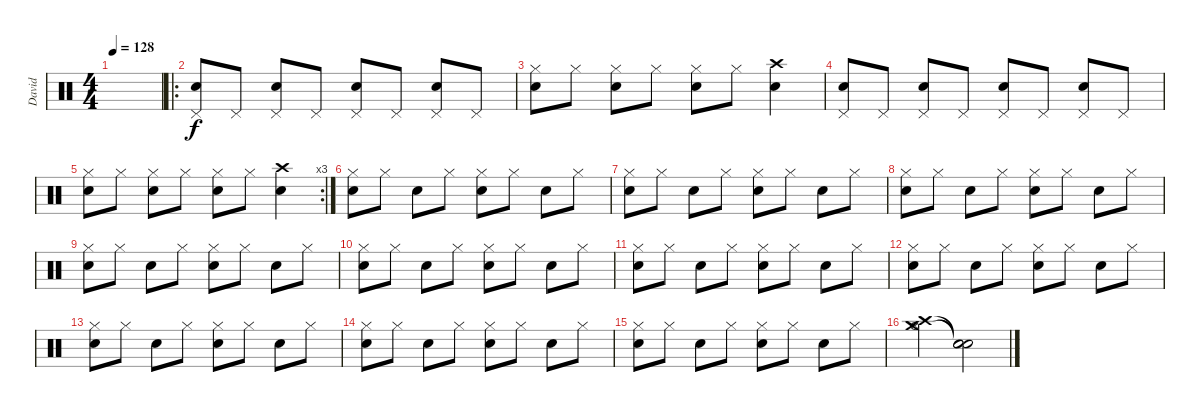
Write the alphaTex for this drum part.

\track ("David" "David") {instrument percussion}
\staff {score}
\articulation defaults
\ts (4 4)
\tempo 128
\clef neutral
\ks c
|
\ro
("Pedal Hi-Hat (hit)" "Electric Snare (hit)").8 "Pedal Hi-Hat (hit)".8 ("Pedal Hi-Hat (hit)" "Electric Snare (hit)").8 "Pedal Hi-Hat (hit)".8 ("Pedal Hi-Hat (hit)" "Electric Snare (hit)").8 "Pedal Hi-Hat (hit)".8 ("Pedal Hi-Hat (hit)" "Electric Snare (hit)").8 "Pedal Hi-Hat (hit)".8 |
("Hi-Hat (closed)" "Electric Snare (hit)").8 "Hi-Hat (closed)".8 ("Hi-Hat (closed)" "Electric Snare (hit)").8 "Hi-Hat (closed)".8 ("Hi-Hat (closed)" "Electric Snare (hit)").8 "Hi-Hat (closed)".8 ("Crash high (hit)" "Electric Snare (hit)").4 |
("Pedal Hi-Hat (hit)" "Electric Snare (hit)").8 "Pedal Hi-Hat (hit)".8 ("Pedal Hi-Hat (hit)" "Electric Snare (hit)").8 "Pedal Hi-Hat (hit)".8 ("Pedal Hi-Hat (hit)" "Electric Snare (hit)").8 "Pedal Hi-Hat (hit)".8 ("Pedal Hi-Hat (hit)" "Electric Snare (hit)").8 "Pedal Hi-Hat (hit)".8 |
\rc 3
("Hi-Hat (closed)" "Electric Snare (hit)").8 "Hi-Hat (closed)".8 ("Hi-Hat (closed)" "Electric Snare (hit)").8 "Hi-Hat (closed)".8 ("Hi-Hat (closed)" "Electric Snare (hit)").8 "Hi-Hat (closed)".8 ("Crash high (hit)" "Electric Snare (hit)").4 |
("Hi-Hat (closed)" "Electric Snare (hit)").8 "Hi-Hat (closed)".8 "Snare (hit) 2".8 "Hi-Hat (closed)".8 ("Hi-Hat (closed)" "Electric Snare (hit)").8 "Hi-Hat (closed)".8 "Snare (hit) 2".8 "Hi-Hat (closed)".8 |
("Hi-Hat (closed)" "Electric Snare (hit)").8 "Hi-Hat (closed)".8 "Snare (hit) 2".8 "Hi-Hat (closed)".8 ("Hi-Hat (closed)" "Electric Snare (hit)").8 "Hi-Hat (closed)".8 "Snare (hit) 2".8 "Hi-Hat (closed)".8 |
("Hi-Hat (closed)" "Electric Snare (hit)").8 "Hi-Hat (closed)".8 "Snare (hit) 2".8 "Hi-Hat (closed)".8 ("Hi-Hat (closed)" "Electric Snare (hit)").8 "Hi-Hat (closed)".8 "Snare (hit) 2".8 "Hi-Hat (closed)".8 |
("Hi-Hat (closed)" "Electric Snare (hit)").8 "Hi-Hat (closed)".8 "Snare (hit) 2".8 "Hi-Hat (closed)".8 ("Hi-Hat (closed)" "Electric Snare (hit)").8 "Hi-Hat (closed)".8 "Snare (hit) 2".8 "Hi-Hat (closed)".8 |
("Hi-Hat (closed)" "Electric Snare (hit)").8 "Hi-Hat (closed)".8 "Snare (hit) 2".8 "Hi-Hat (closed)".8 ("Hi-Hat (closed)" "Electric Snare (hit)").8 "Hi-Hat (closed)".8 "Snare (hit) 2".8 "Hi-Hat (closed)".8 |
("Hi-Hat (closed)" "Electric Snare (hit)").8 "Hi-Hat (closed)".8 "Snare (hit) 2".8 "Hi-Hat (closed)".8 ("Hi-Hat (closed)" "Electric Snare (hit)").8 "Hi-Hat (closed)".8 "Snare (hit) 2".8 "Hi-Hat (closed)".8 |
("Hi-Hat (closed)" "Electric Snare (hit)").8 "Hi-Hat (closed)".8 "Snare (hit) 2".8 "Hi-Hat (closed)".8 ("Hi-Hat (closed)" "Electric Snare (hit)").8 "Hi-Hat (closed)".8 "Snare (hit) 2".8 "Hi-Hat (closed)".8 |
("Hi-Hat (closed)" "Electric Snare (hit)").8 "Hi-Hat (closed)".8 "Snare (hit) 2".8 "Hi-Hat (closed)".8 ("Hi-Hat (closed)" "Electric Snare (hit)").8 "Hi-Hat (closed)".8 "Snare (hit) 2".8 "Hi-Hat (closed)".8 |
("Hi-Hat (closed)" "Electric Snare (hit)").8 "Hi-Hat (closed)".8 "Snare (hit) 2".8 "Hi-Hat (closed)".8 ("Hi-Hat (closed)" "Electric Snare (hit)").8 "Hi-Hat (closed)".8 "Snare (hit) 2".8 "Hi-Hat (closed)".8 |
("Hi-Hat (closed)" "Electric Snare (hit)").8 "Hi-Hat (closed)".8 "Snare (hit) 2".8 "Hi-Hat (closed)".8 ("Hi-Hat (closed)" "Electric Snare (hit)").8 "Hi-Hat (closed)".8 "Snare (hit) 2".8 "Hi-Hat (closed)".8 |
("Crash medium (hit)" "Crash high (hit)" "Hi-Hat (open)").2 ("Snare (hit)"{t} "Snare (hit)"{t} "Snare (hit)"{t}).2
